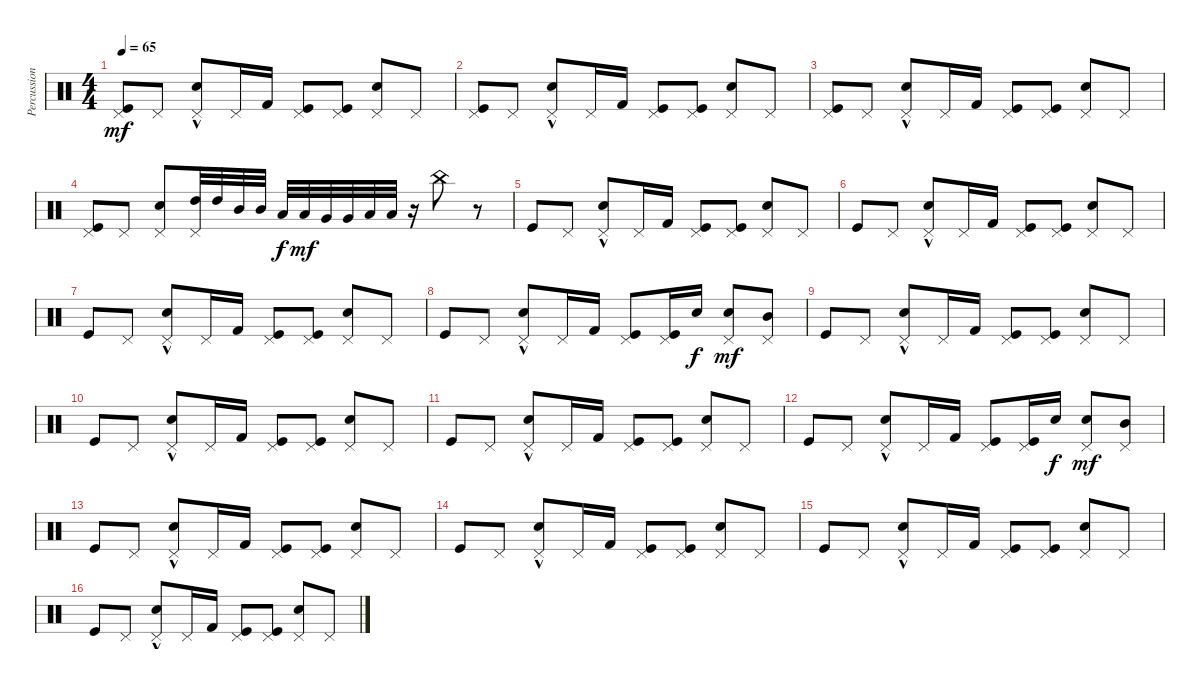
\track ("Percussion" "Percussion") {instrument percussion}
\staff {score}
\articulation defaults
\ts (4 4)
\tempo 65
\clef neutral
\ks c
("Kick (hit)" "Pedal Hi-Hat (hit)").8{dy mf} "Pedal Hi-Hat (hit)".8 ("Pedal Hi-Hat (hit)" "Hand Clap (hit)"{hac}).8 "Pedal Hi-Hat (hit)".16 "Kick (hit) 2".16 ("Pedal Hi-Hat (hit)" "Kick (hit)").8 ("Pedal Hi-Hat (hit)" "Kick (hit)").8 ("Pedal Hi-Hat (hit)" "Hand Clap (hit)").8 "Pedal Hi-Hat (hit)".8 |
("Kick (hit)" "Pedal Hi-Hat (hit)").8 "Pedal Hi-Hat (hit)".8 ("Pedal Hi-Hat (hit)" "Hand Clap (hit)"{hac}).8 "Pedal Hi-Hat (hit)".16 "Kick (hit) 2".16 ("Pedal Hi-Hat (hit)" "Kick (hit)").8 ("Pedal Hi-Hat (hit)" "Kick (hit)").8 ("Pedal Hi-Hat (hit)" "Hand Clap (hit)").8 "Pedal Hi-Hat (hit)".8 |
("Kick (hit)" "Pedal Hi-Hat (hit)").8 "Pedal Hi-Hat (hit)".8 ("Pedal Hi-Hat (hit)" "Hand Clap (hit)"{hac}).8 "Pedal Hi-Hat (hit)".16 "Kick (hit) 2".16 ("Pedal Hi-Hat (hit)" "Kick (hit)").8 ("Pedal Hi-Hat (hit)" "Kick (hit)").8 ("Pedal Hi-Hat (hit)" "Hand Clap (hit)").8 "Pedal Hi-Hat (hit)".8 |
("Kick (hit)" "Pedal Hi-Hat (hit)").8 "Pedal Hi-Hat (hit)".8 ("Pedal Hi-Hat (hit)" "Hand Clap (hit)").8 ("Pedal Hi-Hat (hit)" "High Tom (hit)").32 "High Tom (hit)".32 "Mid Tom (hit)".32 "Mid Tom (hit)".32 "Low Tom (hit)".32{dy f} "Low Tom (hit)".32{dy mf} "Very Low Tom (hit)".32 "Very Low Tom (hit)".32 "Low Floor Tom (hit)".32 "Low Floor Tom (hit)".32 r.16 "China (hit)".8 r.8 |
"Kick (hit)".8 "Pedal Hi-Hat (hit)".8 ("Pedal Hi-Hat (hit)" "Hand Clap (hit)"{hac}).8 "Pedal Hi-Hat (hit)".16 "Kick (hit) 2".16 ("Pedal Hi-Hat (hit)" "Kick (hit)").8 ("Pedal Hi-Hat (hit)" "Kick (hit)").8 ("Pedal Hi-Hat (hit)" "Hand Clap (hit)").8 "Pedal Hi-Hat (hit)".8 |
"Kick (hit)".8 "Pedal Hi-Hat (hit)".8 ("Pedal Hi-Hat (hit)" "Hand Clap (hit)"{hac}).8 "Pedal Hi-Hat (hit)".16 "Kick (hit) 2".16 ("Pedal Hi-Hat (hit)" "Kick (hit)").8 ("Pedal Hi-Hat (hit)" "Kick (hit)").8 ("Pedal Hi-Hat (hit)" "Hand Clap (hit)").8 "Pedal Hi-Hat (hit)".8 |
"Kick (hit)".8 "Pedal Hi-Hat (hit)".8 ("Pedal Hi-Hat (hit)" "Hand Clap (hit)"{hac}).8 "Pedal Hi-Hat (hit)".16 "Kick (hit) 2".16 ("Pedal Hi-Hat (hit)" "Kick (hit)").8 ("Pedal Hi-Hat (hit)" "Kick (hit)").8 ("Pedal Hi-Hat (hit)" "Hand Clap (hit)").8 "Pedal Hi-Hat (hit)".8 |
"Kick (hit)".8 "Pedal Hi-Hat (hit)".8 ("Pedal Hi-Hat (hit)" "Hand Clap (hit)"{hac}).8 "Pedal Hi-Hat (hit)".16 "Kick (hit) 2".16 ("Pedal Hi-Hat (hit)" "Kick (hit)").8 ("Pedal Hi-Hat (hit)" "Kick (hit)").16 "Electric Snare (hit)".16{dy f} ("Pedal Hi-Hat (hit)" "Electric Snare (hit)").8{dy mf} ("Pedal Hi-Hat (hit)" "Mid Tom (hit)").8 |
"Kick (hit)".8 "Pedal Hi-Hat (hit)".8 ("Pedal Hi-Hat (hit)" "Hand Clap (hit)"{hac}).8 "Pedal Hi-Hat (hit)".16 "Kick (hit) 2".16 ("Pedal Hi-Hat (hit)" "Kick (hit)").8 ("Pedal Hi-Hat (hit)" "Kick (hit)").8 ("Pedal Hi-Hat (hit)" "Hand Clap (hit)").8 "Pedal Hi-Hat (hit)".8 |
"Kick (hit)".8 "Pedal Hi-Hat (hit)".8 ("Pedal Hi-Hat (hit)" "Hand Clap (hit)"{hac}).8 "Pedal Hi-Hat (hit)".16 "Kick (hit) 2".16 ("Pedal Hi-Hat (hit)" "Kick (hit)").8 ("Pedal Hi-Hat (hit)" "Kick (hit)").8 ("Pedal Hi-Hat (hit)" "Hand Clap (hit)").8 "Pedal Hi-Hat (hit)".8 |
"Kick (hit)".8 "Pedal Hi-Hat (hit)".8 ("Pedal Hi-Hat (hit)" "Hand Clap (hit)"{hac}).8 "Pedal Hi-Hat (hit)".16 "Kick (hit) 2".16 ("Pedal Hi-Hat (hit)" "Kick (hit)").8 ("Pedal Hi-Hat (hit)" "Kick (hit)").8 ("Pedal Hi-Hat (hit)" "Hand Clap (hit)").8 "Pedal Hi-Hat (hit)".8 |
"Kick (hit)".8 "Pedal Hi-Hat (hit)".8 ("Pedal Hi-Hat (hit)" "Hand Clap (hit)"{hac}).8 "Pedal Hi-Hat (hit)".16 "Kick (hit) 2".16 ("Pedal Hi-Hat (hit)" "Kick (hit)").8 ("Pedal Hi-Hat (hit)" "Kick (hit)").16 "Electric Snare (hit)".16{dy f} ("Pedal Hi-Hat (hit)" "Electric Snare (hit)").8{dy mf} ("Pedal Hi-Hat (hit)" "Mid Tom (hit)").8 |
"Kick (hit)".8 "Pedal Hi-Hat (hit)".8 ("Pedal Hi-Hat (hit)" "Hand Clap (hit)"{hac}).8 "Pedal Hi-Hat (hit)".16 "Kick (hit) 2".16 ("Pedal Hi-Hat (hit)" "Kick (hit)").8 ("Pedal Hi-Hat (hit)" "Kick (hit)").8 ("Pedal Hi-Hat (hit)" "Hand Clap (hit)").8 "Pedal Hi-Hat (hit)".8 |
"Kick (hit)".8 "Pedal Hi-Hat (hit)".8 ("Pedal Hi-Hat (hit)" "Hand Clap (hit)"{hac}).8 "Pedal Hi-Hat (hit)".16 "Kick (hit) 2".16 ("Pedal Hi-Hat (hit)" "Kick (hit)").8 ("Pedal Hi-Hat (hit)" "Kick (hit)").8 ("Pedal Hi-Hat (hit)" "Hand Clap (hit)").8 "Pedal Hi-Hat (hit)".8 |
"Kick (hit)".8 "Pedal Hi-Hat (hit)".8 ("Pedal Hi-Hat (hit)" "Hand Clap (hit)"{hac}).8 "Pedal Hi-Hat (hit)".16 "Kick (hit) 2".16 ("Pedal Hi-Hat (hit)" "Kick (hit)").8 ("Pedal Hi-Hat (hit)" "Kick (hit)").8 ("Pedal Hi-Hat (hit)" "Hand Clap (hit)").8 "Pedal Hi-Hat (hit)".8 |
"Kick (hit)".8 "Pedal Hi-Hat (hit)".8 ("Pedal Hi-Hat (hit)" "Hand Clap (hit)"{hac}).8 "Pedal Hi-Hat (hit)".16 "Kick (hit) 2".16 ("Pedal Hi-Hat (hit)" "Kick (hit)").8 ("Pedal Hi-Hat (hit)" "Kick (hit)").8 ("Pedal Hi-Hat (hit)" "Hand Clap (hit)").8 "Pedal Hi-Hat (hit)".8
